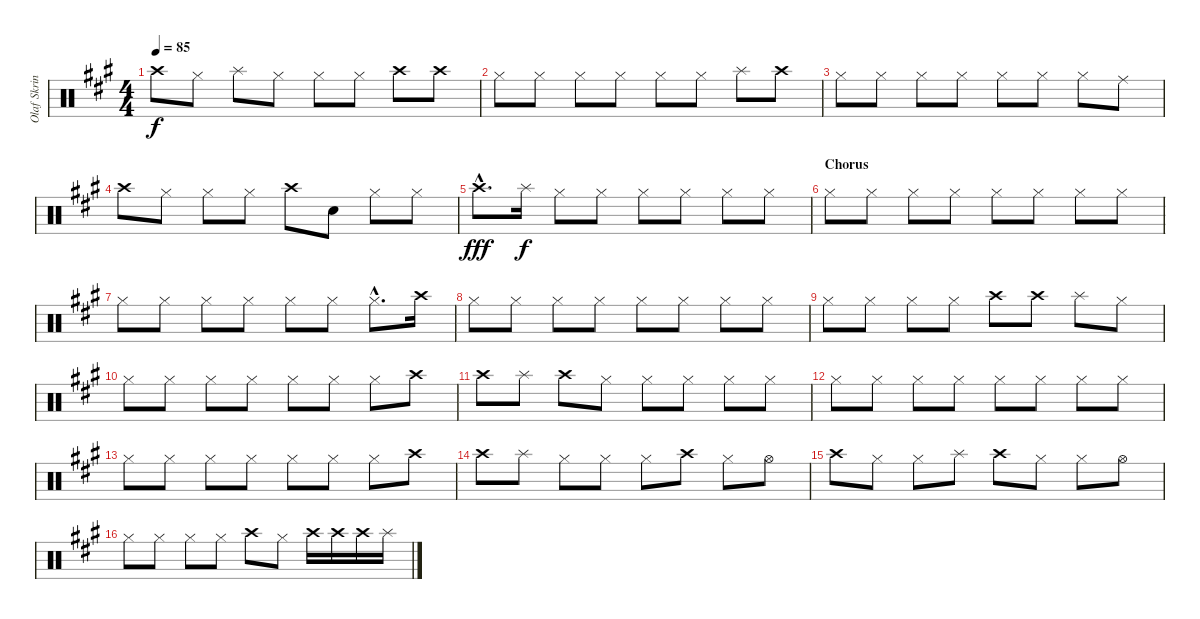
\track ("Olaf Skrinde (Drums)" "Olaf Skrin") {instrument percussion}
\staff {score}
\articulation defaults
\ts (4 4)
\tempo 85
\clef neutral
\ks a "Crash high (hit)".8{dy f} "Hi-Hat (closed)".8 "Splash (hit)".8 "Hi-Hat (closed)".8 "Hi-Hat (closed)".8 "Hi-Hat (closed)".8 "Crash high (hit)".8 "Crash high (hit)".8
|
"Hi-Hat (closed)".8 "Hi-Hat (closed)".8 "Hi-Hat (closed)".8 "Hi-Hat (closed)".8 "Hi-Hat (closed)".8 "Hi-Hat (closed)".8 "Splash (hit)".8 "Crash high (hit)".8 |
"Hi-Hat (closed)".8 "Hi-Hat (closed)".8 "Hi-Hat (closed)".8 "Hi-Hat (closed)".8 "Hi-Hat (closed)".8 "Hi-Hat (closed)".8 "Hi-Hat (closed)".8 "Ride (middle)".8 |
"Crash high (hit)".8 "Hi-Hat (closed)".8 "Hi-Hat (closed)".8 "Hi-Hat (closed)".8 "Crash high (hit)".8 "Hand Clap (hit)".8 "Hi-Hat (closed)".8 "Hi-Hat (closed)".8 |
"Crash high (hit)"{hac}.8{d dy fff} "Splash (hit)".16{dy f} "Hi-Hat (closed)".8 "Hi-Hat (closed)".8 "Hi-Hat (closed)".8 "Hi-Hat (closed)".8 "Hi-Hat (closed)".8 "Hi-Hat (closed)".8 |
\section ("" "Chorus")
"Hi-Hat (closed)".8 "Hi-Hat (closed)".8 "Hi-Hat (closed)".8 "Hi-Hat (closed)".8 "Hi-Hat (closed)".8 "Hi-Hat (closed)".8 "Hi-Hat (closed)".8 "Hi-Hat (closed)".8 |
"Hi-Hat (closed)".8 "Hi-Hat (closed)".8 "Hi-Hat (closed)".8 "Hi-Hat (closed)".8 "Hi-Hat (closed)".8 "Hi-Hat (closed)".8 "Hi-Hat (closed)"{hac}.8{d} "Crash high (hit)".16 |
"Hi-Hat (closed)".8 "Hi-Hat (closed)".8 "Hi-Hat (closed)".8 "Hi-Hat (closed)".8 "Hi-Hat (closed)".8 "Hi-Hat (closed)".8 "Hi-Hat (closed)".8 "Hi-Hat (closed)".8 |
"Hi-Hat (closed)".8 "Hi-Hat (closed)".8 "Hi-Hat (closed)".8 "Hi-Hat (closed)".8 "Crash high (hit)".8 "Crash high (hit)".8 "Splash (hit)".8 "Hi-Hat (closed)".8 |
"Hi-Hat (closed)".8 "Hi-Hat (closed)".8 "Hi-Hat (closed)".8 "Hi-Hat (closed)".8 "Hi-Hat (closed)".8 "Hi-Hat (closed)".8 "Hi-Hat (closed)".8 "Crash high (hit)".8 |
"Crash high (hit)".8 "Splash (hit)".8 "Crash high (hit)".8 "Hi-Hat (closed)".8 "Hi-Hat (closed)".8 "Hi-Hat (closed)".8 "Hi-Hat (closed)".8 "Hi-Hat (closed)".8 |
"Hi-Hat (closed)".8 "Hi-Hat (closed)".8 "Hi-Hat (closed)".8 "Hi-Hat (closed)".8 "Hi-Hat (closed)".8 "Hi-Hat (closed)".8 "Hi-Hat (closed)".8 "Hi-Hat (closed)".8 |
"Hi-Hat (closed)".8 "Hi-Hat (closed)".8 "Hi-Hat (closed)".8 "Hi-Hat (closed)".8 "Hi-Hat (closed)".8 "Hi-Hat (closed)".8 "Hi-Hat (closed)".8 "Crash high (hit)".8 |
"Crash high (hit)".8 "Splash (hit)".8 "Hi-Hat (closed)".8 "Hi-Hat (closed)".8 "Hi-Hat (closed)".8 "Crash high (hit)".8 "Hi-Hat (closed)".8 "Hi-Hat (open)".8 |
"Crash high (hit)".8 "Hi-Hat (closed)".8 "Hi-Hat (closed)".8 "Splash (hit)".8 "Crash high (hit)".8 "Hi-Hat (closed)".8 "Hi-Hat (closed)".8 "Hi-Hat (open)".8 |
"Hi-Hat (closed)".8 "Hi-Hat (closed)".8 "Hi-Hat (closed)".8 "Hi-Hat (closed)".8 "Crash high (hit)".8 "Hi-Hat (closed)".8 "Crash high (hit)".16 "Crash high (hit)".16 "Crash high (hit)".16 "Splash (hit)".16
